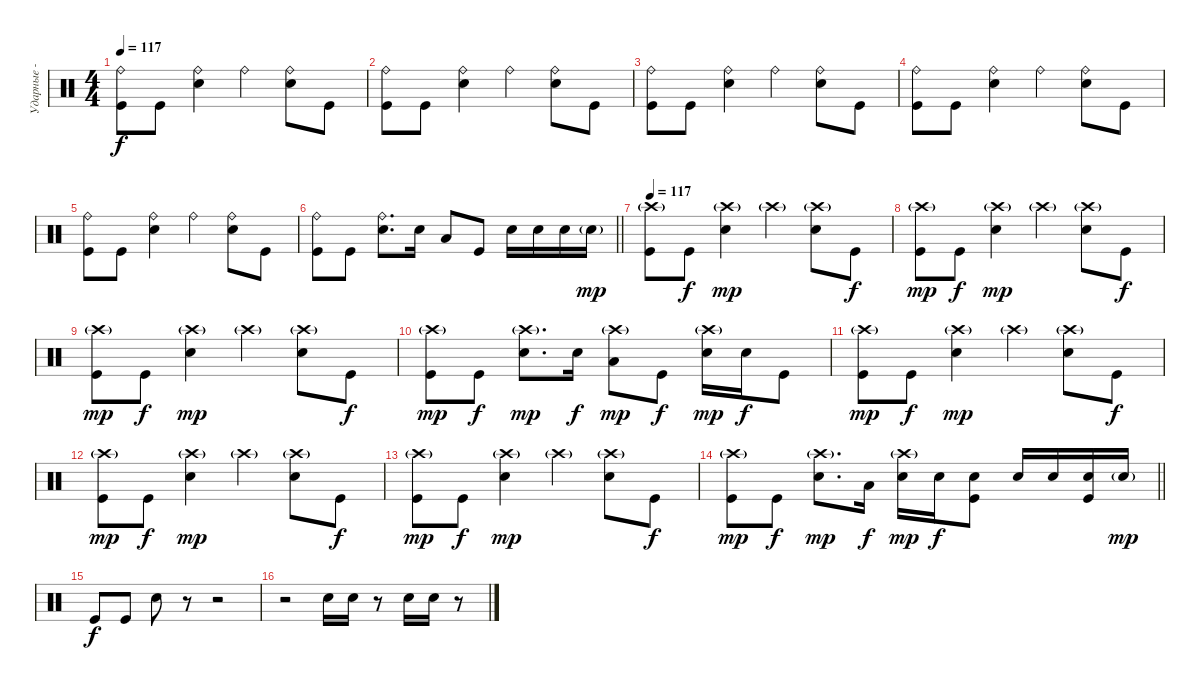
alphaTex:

\track ("Ударные - Джек Уайт" "Ударные - ") {instrument percussion}
\staff {score}
\articulation defaults
\ts (4 4)
\tempo 117
\clef neutral
\ks c
("Ride (bell)" "Kick (hit)").8{dy f} "Kick (hit)".8 ("Ride (bell)" "Snare (hit) 2").4 "Ride (bell)".4 ("Ride (bell)" "Snare (hit) 2").8 "Kick (hit)".8 |
("Ride (bell)" "Kick (hit)").8 "Kick (hit)".8 ("Ride (bell)" "Snare (hit) 2").4 "Ride (bell)".4 ("Ride (bell)" "Snare (hit) 2").8 "Kick (hit)".8 |
("Ride (bell)" "Kick (hit)").8 "Kick (hit)".8 ("Ride (bell)" "Snare (hit) 2").4 "Ride (bell)".4 ("Ride (bell)" "Snare (hit) 2").8 "Kick (hit)".8 |
("Ride (bell)" "Kick (hit)").8 "Kick (hit)".8 ("Ride (bell)" "Snare (hit) 2").4 "Ride (bell)".4 ("Ride (bell)" "Snare (hit) 2").8 "Kick (hit)".8 |
("Ride (bell)" "Kick (hit)").8 "Kick (hit)".8 ("Ride (bell)" "Snare (hit) 2").4 "Ride (bell)".4 ("Ride (bell)" "Snare (hit) 2").8 "Kick (hit)".8 |
\barLineRight lightlight
("Ride (bell)" "Kick (hit)").8 "Kick (hit)".8 ("Ride (bell)" "Snare (hit) 2").8{d} "Snare (hit) 2".16 "Low Tom (hit)".8 "Kick (hit)".8 "Snare (hit) 2".16 "Snare (hit) 2".16 "Snare (hit) 2".16 "Snare (hit) 2"{g}.16{dy mp} |
\tempo 117
("Crash high (hit)"{g} "Kick (hit)").8 "Kick (hit)".8{dy f} ("Crash high (hit)"{g} "Snare (hit) 2").4{dy mp} "Crash high (hit)"{g}.4 ("Crash high (hit)"{g} "Snare (hit) 2").8 "Kick (hit)".8{dy f} |
("Crash high (hit)"{g} "Kick (hit)").8{dy mp} "Kick (hit)".8{dy f} ("Crash high (hit)"{g} "Snare (hit) 2").4{dy mp} "Crash high (hit)"{g}.4 ("Crash high (hit)"{g} "Snare (hit) 2").8 "Kick (hit)".8{dy f} |
("Crash high (hit)"{g} "Kick (hit)").8{dy mp} "Kick (hit)".8{dy f} ("Crash high (hit)"{g} "Snare (hit) 2").4{dy mp} "Crash high (hit)"{g}.4 ("Crash high (hit)"{g} "Snare (hit) 2").8 "Kick (hit)".8{dy f} |
("Crash high (hit)"{g} "Kick (hit)").8{dy mp} "Kick (hit)".8{dy f} ("Crash high (hit)"{g} "Snare (hit) 2").8{d dy mp} "Snare (hit) 2".16{dy f} ("Crash high (hit)"{g} "Low Tom (hit)").8{dy mp} "Kick (hit)".8{dy f} ("Crash high (hit)"{g} "Snare (hit) 2").16{dy mp} "Snare (hit) 2".16{dy f} "Kick (hit)".8 |
("Crash high (hit)"{g} "Kick (hit)").8{dy mp} "Kick (hit)".8{dy f} ("Crash high (hit)"{g} "Snare (hit) 2").4{dy mp} "Crash high (hit)"{g}.4 ("Crash high (hit)"{g} "Snare (hit) 2").8 "Kick (hit)".8{dy f} |
("Crash high (hit)"{g} "Kick (hit)").8{dy mp} "Kick (hit)".8{dy f} ("Crash high (hit)"{g} "Snare (hit) 2").4{dy mp} "Crash high (hit)"{g}.4 ("Crash high (hit)"{g} "Snare (hit) 2").8 "Kick (hit)".8{dy f} |
("Crash high (hit)"{g} "Kick (hit)").8{dy mp} "Kick (hit)".8{dy f} ("Crash high (hit)"{g} "Snare (hit) 2").4{dy mp} "Crash high (hit)"{g}.4 ("Crash high (hit)"{g} "Snare (hit) 2").8 "Kick (hit)".8{dy f} |
\barLineRight lightlight
("Crash high (hit)"{g} "Kick (hit)").8{dy mp} "Kick (hit)".8{dy f} ("Crash high (hit)"{g} "Snare (hit) 2").8{d dy mp} "Low Tom (hit)".16{dy f} ("Crash high (hit)"{g} "Snare (hit) 2").16{dy mp} "Snare (hit) 2".16{dy f} ("Snare (hit) 2" "Kick (hit)").8 "Snare (hit) 2".16 "Snare (hit) 2".16 ("Snare (hit) 2" "Kick (hit)").16 "Snare (hit) 2"{g}.16{dy mp} |
"Kick (hit)".8{dy f} "Kick (hit)".8 "Snare (hit) 2".8 r.8 r.2 |
r.2 "Snare (hit) 2".16 "Snare (hit) 2".16 r.8 "Snare (hit) 2".16 "Snare (hit) 2".16 r.8
